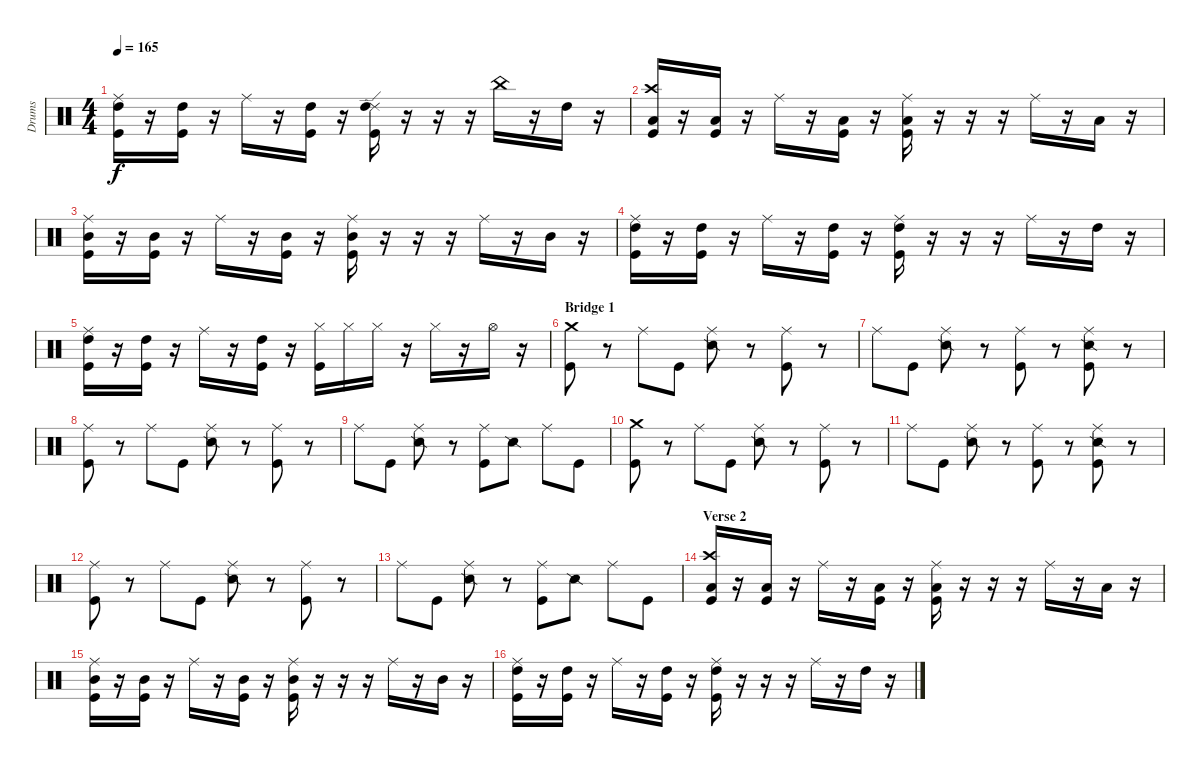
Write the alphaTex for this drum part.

\track ("Drums" "Drums") {instrument percussion}
\staff {score}
\articulation defaults
\ts (4 4)
\tempo 165
\clef neutral
\ks c
("Ride (middle)" "High Tom (hit)" "Kick (hit)").16{dy f} r.16 ("High Tom (hit)" "Kick (hit)").16 r.16 "Ride (middle)".16 r.16 ("High Tom (hit)" "Kick (hit)").16 r.16 ("Ride (edge) 2" "High Tom (hit)" "Kick (hit)").16 r.16 r.16 r.16 "China (hit)".16 r.16 "High Tom (hit)".16 r.16 |
("Crash high (hit)" "Low Tom (hit)" "Kick (hit)").16 r.16 ("Low Tom (hit)" "Kick (hit)").16 r.16 "Ride (middle)".16 r.16 ("Low Tom (hit)" "Kick (hit)").16 r.16 ("Ride (middle)" "Low Tom (hit)" "Kick (hit)").16 r.16 r.16 r.16 "Ride (middle)".16 r.16 "Low Tom (hit)".16 r.16 |
("Ride (middle)" "Mid Tom (hit)" "Kick (hit)").16 r.16 ("Mid Tom (hit)" "Kick (hit)").16 r.16 "Ride (middle)".16 r.16 ("Mid Tom (hit)" "Kick (hit)").16 r.16 ("Ride (middle)" "Mid Tom (hit)" "Kick (hit)").16 r.16 r.16 r.16 "Ride (middle)".16 r.16 "Mid Tom (hit)".16 r.16 |
("Ride (middle)" "High Tom (hit)" "Kick (hit)").16 r.16 ("High Tom (hit)" "Kick (hit)").16 r.16 "Ride (middle)".16 r.16 ("High Tom (hit)" "Kick (hit)").16 r.16 ("Ride (middle)" "High Tom (hit)" "Kick (hit)").16 r.16 r.16 r.16 "Ride (middle)".16 r.16 "High Tom (hit)".16 r.16 |
("Ride (middle)" "High Tom (hit)" "Kick (hit)").16 r.16 ("High Tom (hit)" "Kick (hit)").16 r.16 "Ride (middle)".16 r.16 ("High Tom (hit)" "Kick (hit)").16 r.16 ("Hi-Hat (closed)" "Kick (hit)").16 "Hi-Hat (closed)".16 "Hi-Hat (closed)".16 r.16 "Hi-Hat (closed)".16 r.16 "Hi-Hat (open)".16 r.16 |
\section ("" "Bridge 1")
("Crash medium (hit)" "Kick (hit)").8 r.8 "Ride (middle)".8 "Kick (hit)".8 ("Ride (middle)" "Snare (side stick) 2").8 r.8 ("Ride (middle)" "Kick (hit)").8 r.8 |
"Ride (middle)".8 "Kick (hit)".8 ("Ride (middle)" "Snare (side stick) 2").8 r.8 ("Ride (middle)" "Kick (hit)").8 r.8 ("Ride (middle)" "Snare (side stick) 2" "Kick (hit)").8 r.8 |
("Ride (middle)" "Kick (hit)").8 r.8 "Ride (middle)".8 "Kick (hit)".8 ("Ride (middle)" "Snare (side stick) 2").8 r.8 ("Ride (middle)" "Kick (hit)").8 r.8 |
"Ride (middle)".8 "Kick (hit)".8 ("Ride (middle)" "Snare (side stick) 2").8 r.8 ("Ride (middle)" "Kick (hit)").8 "Snare (side stick) 2".8 "Ride (middle)".8 "Kick (hit)".8 |
("Crash medium (hit)" "Kick (hit)").8 r.8 "Ride (middle)".8 "Kick (hit)".8 ("Ride (middle)" "Snare (side stick) 2").8 r.8 ("Ride (middle)" "Kick (hit)").8 r.8 |
"Ride (middle)".8 "Kick (hit)".8 ("Ride (middle)" "Snare (side stick) 2").8 r.8 ("Ride (middle)" "Kick (hit)").8 r.8 ("Ride (middle)" "Snare (side stick) 2" "Kick (hit)").8 r.8 |
("Ride (middle)" "Kick (hit)").8 r.8 "Ride (middle)".8 "Kick (hit)".8 ("Ride (middle)" "Snare (side stick) 2").8 r.8 ("Ride (middle)" "Kick (hit)").8 r.8 |
"Ride (middle)".8 "Kick (hit)".8 ("Ride (middle)" "Snare (side stick) 2").8 r.8 ("Ride (middle)" "Kick (hit)").8 "Snare (side stick) 2".8 "Ride (middle)".8 "Kick (hit)".8 |
\section ("" "Verse 2")
("Crash high (hit)" "Low Tom (hit)" "Kick (hit)").16 r.16 ("Low Tom (hit)" "Kick (hit)").16 r.16 "Ride (middle)".16 r.16 ("Low Tom (hit)" "Kick (hit)").16 r.16 ("Ride (middle)" "Low Tom (hit)" "Kick (hit)").16 r.16 r.16 r.16 "Ride (middle)".16 r.16 "Low Tom (hit)".16 r.16 |
("Ride (middle)" "Mid Tom (hit)" "Kick (hit)").16 r.16 ("Mid Tom (hit)" "Kick (hit)").16 r.16 "Ride (middle)".16 r.16 ("Mid Tom (hit)" "Kick (hit)").16 r.16 ("Ride (middle)" "Mid Tom (hit)" "Kick (hit)").16 r.16 r.16 r.16 "Ride (middle)".16 r.16 "Mid Tom (hit)".16 r.16 |
("Ride (middle)" "High Tom (hit)" "Kick (hit)").16 r.16 ("High Tom (hit)" "Kick (hit)").16 r.16 "Ride (middle)".16 r.16 ("High Tom (hit)" "Kick (hit)").16 r.16 ("Ride (middle)" "High Tom (hit)" "Kick (hit)").16 r.16 r.16 r.16 "Ride (middle)".16 r.16 "High Tom (hit)".16 r.16
